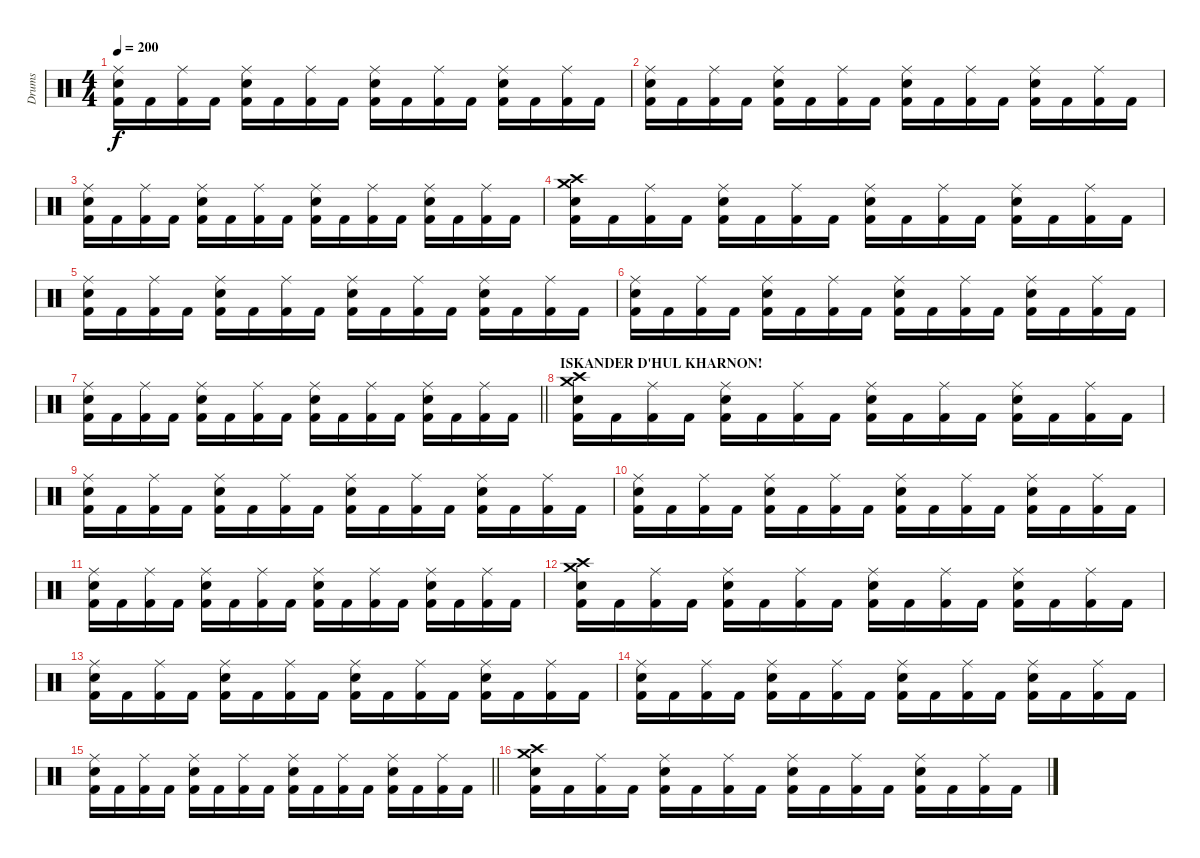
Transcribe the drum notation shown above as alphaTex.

\track ("Drums" "Drums") {instrument percussion}
\staff {score}
\articulation defaults
\ts (4 4)
\tempo 200
\clef neutral
\ks c
("Ride (middle)" "Electric Snare (hit)" "Kick (hit) 2").16{dy f} "Kick (hit) 2".16 ("Ride (middle)" "Kick (hit) 2").16 "Kick (hit) 2".16 ("Ride (middle)" "Electric Snare (hit)" "Kick (hit) 2").16 "Kick (hit) 2".16 ("Ride (middle)" "Kick (hit) 2").16 "Kick (hit) 2".16 ("Ride (middle)" "Electric Snare (hit)" "Kick (hit) 2").16 "Kick (hit) 2".16 ("Ride (middle)" "Kick (hit) 2").16 "Kick (hit) 2".16 ("Ride (middle)" "Electric Snare (hit)" "Kick (hit) 2").16 "Kick (hit) 2".16 ("Ride (middle)" "Kick (hit) 2").16 "Kick (hit) 2".16 |
("Ride (middle)" "Electric Snare (hit)" "Kick (hit) 2").16 "Kick (hit) 2".16 ("Ride (middle)" "Kick (hit) 2").16 "Kick (hit) 2".16 ("Ride (middle)" "Electric Snare (hit)" "Kick (hit) 2").16 "Kick (hit) 2".16 ("Ride (middle)" "Kick (hit) 2").16 "Kick (hit) 2".16 ("Ride (middle)" "Electric Snare (hit)" "Kick (hit) 2").16 "Kick (hit) 2".16 ("Ride (middle)" "Kick (hit) 2").16 "Kick (hit) 2".16 ("Ride (middle)" "Electric Snare (hit)" "Kick (hit) 2").16 "Kick (hit) 2".16 ("Ride (middle)" "Kick (hit) 2").16 "Kick (hit) 2".16 |
("Ride (middle)" "Electric Snare (hit)" "Kick (hit) 2").16 "Kick (hit) 2".16 ("Ride (middle)" "Kick (hit) 2").16 "Kick (hit) 2".16 ("Ride (middle)" "Electric Snare (hit)" "Kick (hit) 2").16 "Kick (hit) 2".16 ("Ride (middle)" "Kick (hit) 2").16 "Kick (hit) 2".16 ("Ride (middle)" "Electric Snare (hit)" "Kick (hit) 2").16 "Kick (hit) 2".16 ("Ride (middle)" "Kick (hit) 2").16 "Kick (hit) 2".16 ("Ride (middle)" "Electric Snare (hit)" "Kick (hit) 2").16 "Kick (hit) 2".16 ("Ride (middle)" "Kick (hit) 2").16 "Kick (hit) 2".16 |
("Crash medium (hit)" "Crash high (hit)" "Electric Snare (hit)" "Kick (hit) 2").16 "Kick (hit) 2".16 ("Ride (middle)" "Kick (hit) 2").16 "Kick (hit) 2".16 ("Ride (middle)" "Electric Snare (hit)" "Kick (hit) 2").16 "Kick (hit) 2".16 ("Ride (middle)" "Kick (hit) 2").16 "Kick (hit) 2".16 ("Ride (middle)" "Electric Snare (hit)" "Kick (hit) 2").16 "Kick (hit) 2".16 ("Ride (middle)" "Kick (hit) 2").16 "Kick (hit) 2".16 ("Ride (middle)" "Electric Snare (hit)" "Kick (hit) 2").16 "Kick (hit) 2".16 ("Ride (middle)" "Kick (hit) 2").16 "Kick (hit) 2".16 |
("Ride (middle)" "Electric Snare (hit)" "Kick (hit) 2").16 "Kick (hit) 2".16 ("Ride (middle)" "Kick (hit) 2").16 "Kick (hit) 2".16 ("Ride (middle)" "Electric Snare (hit)" "Kick (hit) 2").16 "Kick (hit) 2".16 ("Ride (middle)" "Kick (hit) 2").16 "Kick (hit) 2".16 ("Ride (middle)" "Electric Snare (hit)" "Kick (hit) 2").16 "Kick (hit) 2".16 ("Ride (middle)" "Kick (hit) 2").16 "Kick (hit) 2".16 ("Ride (middle)" "Electric Snare (hit)" "Kick (hit) 2").16 "Kick (hit) 2".16 ("Ride (middle)" "Kick (hit) 2").16 "Kick (hit) 2".16 |
("Ride (middle)" "Electric Snare (hit)" "Kick (hit) 2").16 "Kick (hit) 2".16 ("Ride (middle)" "Kick (hit) 2").16 "Kick (hit) 2".16 ("Ride (middle)" "Electric Snare (hit)" "Kick (hit) 2").16 "Kick (hit) 2".16 ("Ride (middle)" "Kick (hit) 2").16 "Kick (hit) 2".16 ("Ride (middle)" "Electric Snare (hit)" "Kick (hit) 2").16 "Kick (hit) 2".16 ("Ride (middle)" "Kick (hit) 2").16 "Kick (hit) 2".16 ("Ride (middle)" "Electric Snare (hit)" "Kick (hit) 2").16 "Kick (hit) 2".16 ("Ride (middle)" "Kick (hit) 2").16 "Kick (hit) 2".16 |
\barLineRight lightlight
("Ride (middle)" "Electric Snare (hit)" "Kick (hit) 2").16 "Kick (hit) 2".16 ("Ride (middle)" "Kick (hit) 2").16 "Kick (hit) 2".16 ("Ride (middle)" "Electric Snare (hit)" "Kick (hit) 2").16 "Kick (hit) 2".16 ("Ride (middle)" "Kick (hit) 2").16 "Kick (hit) 2".16 ("Ride (middle)" "Electric Snare (hit)" "Kick (hit) 2").16 "Kick (hit) 2".16 ("Ride (middle)" "Kick (hit) 2").16 "Kick (hit) 2".16 ("Ride (middle)" "Electric Snare (hit)" "Kick (hit) 2").16 "Kick (hit) 2".16 ("Ride (middle)" "Kick (hit) 2").16 "Kick (hit) 2".16 |
\section ("" "ISKANDER D'HUL KHARNON!")
("Crash medium (hit)" "Crash high (hit)" "Electric Snare (hit)" "Kick (hit) 2").16 "Kick (hit) 2".16 ("Ride (middle)" "Kick (hit) 2").16 "Kick (hit) 2".16 ("Ride (middle)" "Electric Snare (hit)" "Kick (hit) 2").16 "Kick (hit) 2".16 ("Ride (middle)" "Kick (hit) 2").16 "Kick (hit) 2".16 ("Ride (middle)" "Electric Snare (hit)" "Kick (hit) 2").16 "Kick (hit) 2".16 ("Ride (middle)" "Kick (hit) 2").16 "Kick (hit) 2".16 ("Ride (middle)" "Electric Snare (hit)" "Kick (hit) 2").16 "Kick (hit) 2".16 ("Ride (middle)" "Kick (hit) 2").16 "Kick (hit) 2".16 |
("Ride (middle)" "Electric Snare (hit)" "Kick (hit) 2").16 "Kick (hit) 2".16 ("Ride (middle)" "Kick (hit) 2").16 "Kick (hit) 2".16 ("Ride (middle)" "Electric Snare (hit)" "Kick (hit) 2").16 "Kick (hit) 2".16 ("Ride (middle)" "Kick (hit) 2").16 "Kick (hit) 2".16 ("Ride (middle)" "Electric Snare (hit)" "Kick (hit) 2").16 "Kick (hit) 2".16 ("Ride (middle)" "Kick (hit) 2").16 "Kick (hit) 2".16 ("Ride (middle)" "Electric Snare (hit)" "Kick (hit) 2").16 "Kick (hit) 2".16 ("Ride (middle)" "Kick (hit) 2").16 "Kick (hit) 2".16 |
("Ride (middle)" "Electric Snare (hit)" "Kick (hit) 2").16 "Kick (hit) 2".16 ("Ride (middle)" "Kick (hit) 2").16 "Kick (hit) 2".16 ("Ride (middle)" "Electric Snare (hit)" "Kick (hit) 2").16 "Kick (hit) 2".16 ("Ride (middle)" "Kick (hit) 2").16 "Kick (hit) 2".16 ("Ride (middle)" "Electric Snare (hit)" "Kick (hit) 2").16 "Kick (hit) 2".16 ("Ride (middle)" "Kick (hit) 2").16 "Kick (hit) 2".16 ("Ride (middle)" "Electric Snare (hit)" "Kick (hit) 2").16 "Kick (hit) 2".16 ("Ride (middle)" "Kick (hit) 2").16 "Kick (hit) 2".16 |
("Ride (middle)" "Electric Snare (hit)" "Kick (hit) 2").16 "Kick (hit) 2".16 ("Ride (middle)" "Kick (hit) 2").16 "Kick (hit) 2".16 ("Ride (middle)" "Electric Snare (hit)" "Kick (hit) 2").16 "Kick (hit) 2".16 ("Ride (middle)" "Kick (hit) 2").16 "Kick (hit) 2".16 ("Ride (middle)" "Electric Snare (hit)" "Kick (hit) 2").16 "Kick (hit) 2".16 ("Ride (middle)" "Kick (hit) 2").16 "Kick (hit) 2".16 ("Ride (middle)" "Electric Snare (hit)" "Kick (hit) 2").16 "Kick (hit) 2".16 ("Ride (middle)" "Kick (hit) 2").16 "Kick (hit) 2".16 |
("Crash medium (hit)" "Crash high (hit)" "Electric Snare (hit)" "Kick (hit) 2").16 "Kick (hit) 2".16 ("Ride (middle)" "Kick (hit) 2").16 "Kick (hit) 2".16 ("Ride (middle)" "Electric Snare (hit)" "Kick (hit) 2").16 "Kick (hit) 2".16 ("Ride (middle)" "Kick (hit) 2").16 "Kick (hit) 2".16 ("Ride (middle)" "Electric Snare (hit)" "Kick (hit) 2").16 "Kick (hit) 2".16 ("Ride (middle)" "Kick (hit) 2").16 "Kick (hit) 2".16 ("Ride (middle)" "Electric Snare (hit)" "Kick (hit) 2").16 "Kick (hit) 2".16 ("Ride (middle)" "Kick (hit) 2").16 "Kick (hit) 2".16 |
("Ride (middle)" "Electric Snare (hit)" "Kick (hit) 2").16 "Kick (hit) 2".16 ("Ride (middle)" "Kick (hit) 2").16 "Kick (hit) 2".16 ("Ride (middle)" "Electric Snare (hit)" "Kick (hit) 2").16 "Kick (hit) 2".16 ("Ride (middle)" "Kick (hit) 2").16 "Kick (hit) 2".16 ("Ride (middle)" "Electric Snare (hit)" "Kick (hit) 2").16 "Kick (hit) 2".16 ("Ride (middle)" "Kick (hit) 2").16 "Kick (hit) 2".16 ("Ride (middle)" "Electric Snare (hit)" "Kick (hit) 2").16 "Kick (hit) 2".16 ("Ride (middle)" "Kick (hit) 2").16 "Kick (hit) 2".16 |
("Ride (middle)" "Electric Snare (hit)" "Kick (hit) 2").16 "Kick (hit) 2".16 ("Ride (middle)" "Kick (hit) 2").16 "Kick (hit) 2".16 ("Ride (middle)" "Electric Snare (hit)" "Kick (hit) 2").16 "Kick (hit) 2".16 ("Ride (middle)" "Kick (hit) 2").16 "Kick (hit) 2".16 ("Ride (middle)" "Electric Snare (hit)" "Kick (hit) 2").16 "Kick (hit) 2".16 ("Ride (middle)" "Kick (hit) 2").16 "Kick (hit) 2".16 ("Ride (middle)" "Electric Snare (hit)" "Kick (hit) 2").16 "Kick (hit) 2".16 ("Ride (middle)" "Kick (hit) 2").16 "Kick (hit) 2".16 |
\barLineRight lightlight
("Ride (middle)" "Electric Snare (hit)" "Kick (hit) 2").16 "Kick (hit) 2".16 ("Ride (middle)" "Kick (hit) 2").16 "Kick (hit) 2".16 ("Ride (middle)" "Electric Snare (hit)" "Kick (hit) 2").16 "Kick (hit) 2".16 ("Ride (middle)" "Kick (hit) 2").16 "Kick (hit) 2".16 ("Ride (middle)" "Electric Snare (hit)" "Kick (hit) 2").16 "Kick (hit) 2".16 ("Ride (middle)" "Kick (hit) 2").16 "Kick (hit) 2".16 ("Ride (middle)" "Electric Snare (hit)" "Kick (hit) 2").16 "Kick (hit) 2".16 ("Ride (middle)" "Kick (hit) 2").16 "Kick (hit) 2".16 |
("Crash medium (hit)" "Crash high (hit)" "Electric Snare (hit)" "Kick (hit) 2").16 "Kick (hit) 2".16 ("Ride (middle)" "Kick (hit) 2").16 "Kick (hit) 2".16 ("Ride (middle)" "Electric Snare (hit)" "Kick (hit) 2").16 "Kick (hit) 2".16 ("Ride (middle)" "Kick (hit) 2").16 "Kick (hit) 2".16 ("Ride (middle)" "Electric Snare (hit)" "Kick (hit) 2").16 "Kick (hit) 2".16 ("Ride (middle)" "Kick (hit) 2").16 "Kick (hit) 2".16 ("Ride (middle)" "Electric Snare (hit)" "Kick (hit) 2").16 "Kick (hit) 2".16 ("Ride (middle)" "Kick (hit) 2").16 "Kick (hit) 2".16
